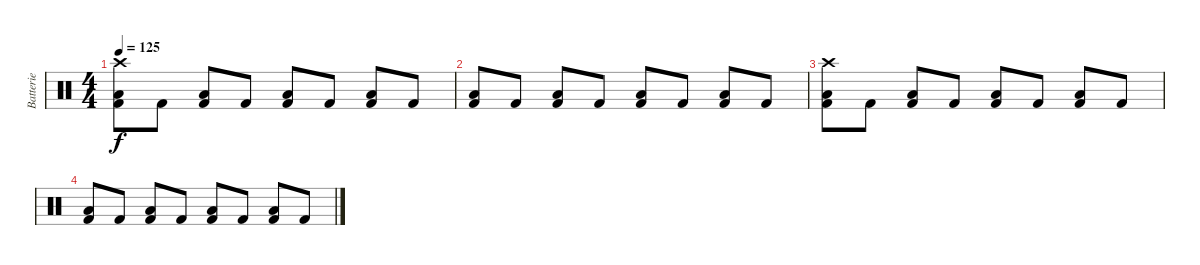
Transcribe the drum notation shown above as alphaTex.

\track ("Batterie" "Batterie") {instrument percussion}
\staff {score}
\articulation defaults
\ts (4 4)
\tempo 125
\clef neutral
\ks c
("Crash high (hit)" "Kick (hit) 2" "Low Tom (hit)").8{dy f} "Kick (hit) 2".8 ("Low Tom (hit)" "Kick (hit) 2").8 "Kick (hit) 2".8 ("Low Tom (hit)" "Kick (hit) 2").8 "Kick (hit) 2".8 ("Low Tom (hit)" "Kick (hit) 2").8 "Kick (hit) 2".8 |
("Low Tom (hit)" "Kick (hit) 2").8 "Kick (hit) 2".8 ("Low Tom (hit)" "Kick (hit) 2").8 "Kick (hit) 2".8 ("Low Tom (hit)" "Kick (hit) 2").8 "Kick (hit) 2".8 ("Low Tom (hit)" "Kick (hit) 2").8 "Kick (hit) 2".8 |
("Crash high (hit)" "Kick (hit) 2" "Low Tom (hit)").8 "Kick (hit) 2".8 ("Low Tom (hit)" "Kick (hit) 2").8 "Kick (hit) 2".8 ("Low Tom (hit)" "Kick (hit) 2").8 "Kick (hit) 2".8 ("Low Tom (hit)" "Kick (hit) 2").8 "Kick (hit) 2".8 |
("Low Tom (hit)" "Kick (hit) 2").8 "Kick (hit) 2".8 ("Low Tom (hit)" "Kick (hit) 2").8 "Kick (hit) 2".8 ("Low Tom (hit)" "Kick (hit) 2").8 "Kick (hit) 2".8 ("Low Tom (hit)" "Kick (hit) 2").8 "Kick (hit) 2".8
